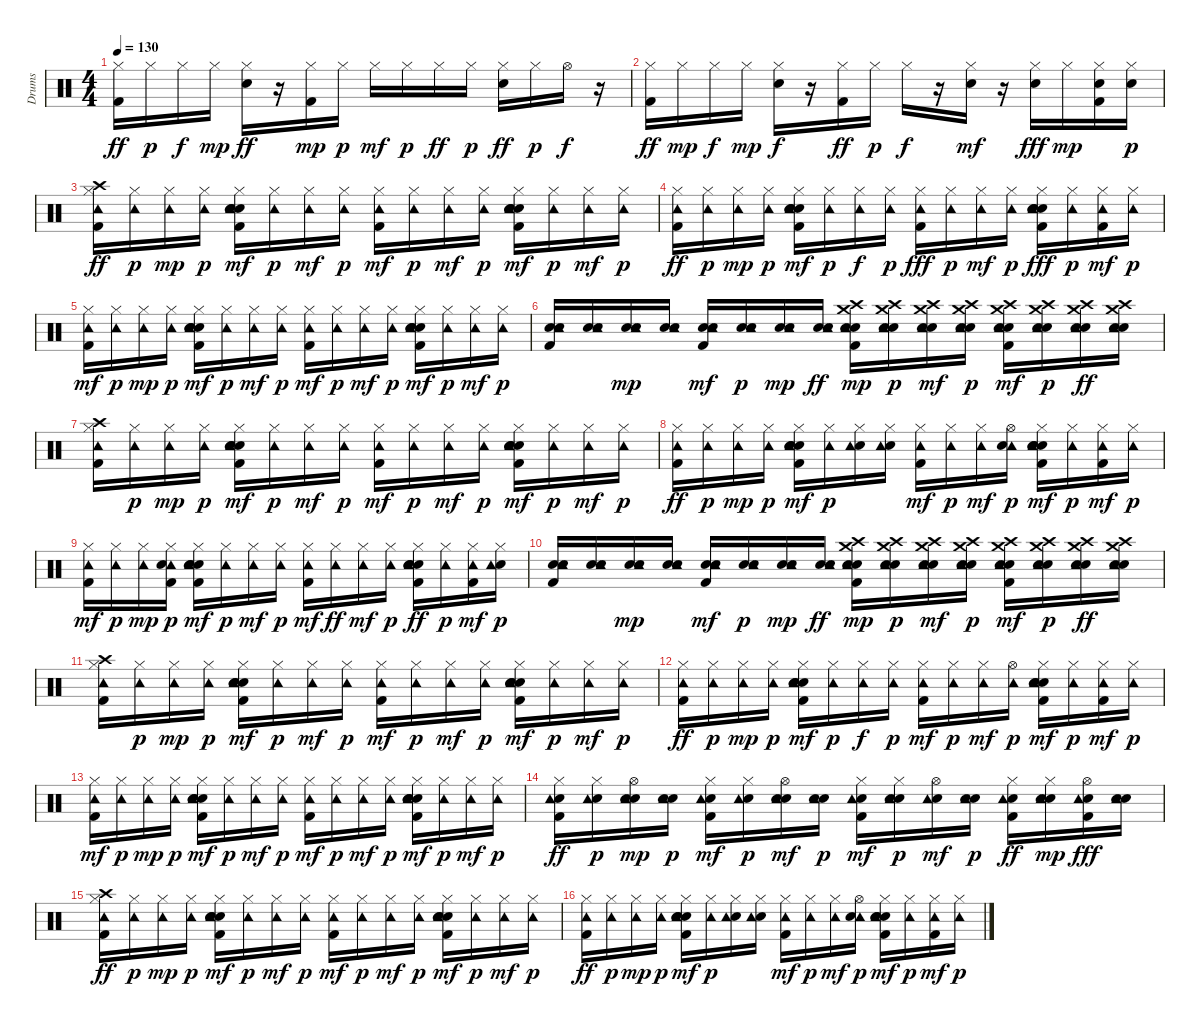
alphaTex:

\track ("Drums  " "Drums  ") {instrument percussion}
\staff {score}
\articulation defaults
\ts (4 4)
\tempo 130
\clef neutral
\ks c
("Kick (hit) 2" "Hi-Hat (closed)").16{dy ff} "Hi-Hat (closed)".16{dy p} "Hi-Hat (closed)".16{dy f} "Hi-Hat (closed)".16{dy mp} ("Snare (hit) 2" "Hi-Hat (closed)").16{dy ff} r.16 ("Kick (hit) 2" "Hi-Hat (closed)").16{dy mp} "Hi-Hat (closed)".16{dy p} "Hi-Hat (closed)".16{dy mf} "Hi-Hat (closed)".16{dy p} "Hi-Hat (closed)".16{dy ff} "Hi-Hat (closed)".16{dy p} ("Snare (hit) 2" "Hi-Hat (closed)").16{dy ff} "Hi-Hat (closed)".16{dy p} "Hi-Hat (open)".16{dy f} r.16 |
("Kick (hit) 2" "Hi-Hat (closed)").16{dy ff} "Hi-Hat (closed)".16{dy mp} "Hi-Hat (closed)".16{dy f} "Hi-Hat (closed)".16{dy mp} ("Snare (hit) 2" "Hi-Hat (closed)").16{dy f} r.16 ("Kick (hit) 2" "Hi-Hat (closed)").16{dy ff} "Hi-Hat (closed)".16{dy p} "Hi-Hat (closed)".16{dy f} r.16 ("Snare (hit) 2" "Hi-Hat (closed)").16{dy mf} r.16 ("Snare (hit) 2" "Hi-Hat (closed)").16{dy fff} "Hi-Hat (closed)".16{dy mp} ("Kick (hit) 2" "Snare (hit) 2" "Hi-Hat (closed)").16 ("Snare (hit) 2" "Hi-Hat (closed)").16{dy p} |
("Kick (hit) 2" "Hi-Hat (closed)" "Tambourine (hit)" "Crash high (hit)").16{dy ff} ("Hi-Hat (closed)" "Tambourine (hit)").16{dy p} ("Hi-Hat (closed)" "Tambourine (hit)").16{dy mp} ("Hi-Hat (closed)" "Tambourine (hit)").16{dy p} ("Kick (hit) 2" "Snare (hit) 2" "Snare (hit) 2" "Electric Snare (hit)" "Hi-Hat (closed)" "Tambourine (hit)").16{dy mf} ("Hi-Hat (closed)" "Tambourine (hit)").16{dy p} ("Hi-Hat (closed)" "Tambourine (hit)").16{dy mf} ("Hi-Hat (closed)" "Tambourine (hit)").16{dy p} ("Kick (hit) 2" "Hi-Hat (closed)" "Tambourine (hit)").16{dy mf} ("Hi-Hat (closed)" "Tambourine (hit)").16{dy p} ("Hi-Hat (closed)" "Tambourine (hit)").16{dy mf} ("Hi-Hat (closed)" "Tambourine (hit)").16{dy p} ("Kick (hit) 2" "Snare (hit) 2" "Snare (hit) 2" "Electric Snare (hit)" "Hi-Hat (closed)" "Tambourine (hit)").16{dy mf} ("Hi-Hat (closed)" "Tambourine (hit)").16{dy p} ("Hi-Hat (closed)" "Tambourine (hit)").16{dy mf} ("Hi-Hat (closed)" "Tambourine (hit)").16{dy p} |
("Kick (hit) 2" "Hi-Hat (closed)" "Tambourine (hit)").16{dy ff} ("Hi-Hat (closed)" "Tambourine (hit)").16{dy p} ("Hi-Hat (closed)" "Tambourine (hit)").16{dy mp} ("Hi-Hat (closed)" "Tambourine (hit)").16{dy p} ("Kick (hit) 2" "Snare (hit) 2" "Snare (hit) 2" "Electric Snare (hit)" "Hi-Hat (closed)" "Tambourine (hit)").16{dy mf} ("Hi-Hat (closed)" "Tambourine (hit)").16{dy p} ("Hi-Hat (closed)" "Tambourine (hit)").16{dy f} ("Hi-Hat (closed)" "Tambourine (hit)").16{dy p} ("Kick (hit) 2" "Hi-Hat (closed)" "Tambourine (hit)").16{dy fff} ("Hi-Hat (closed)" "Tambourine (hit)").16{dy p} ("Hi-Hat (closed)" "Tambourine (hit)").16{dy mf} ("Hi-Hat (closed)" "Tambourine (hit)").16{dy p} ("Kick (hit) 2" "Snare (hit) 2" "Snare (hit) 2" "Electric Snare (hit)" "Hi-Hat (closed)" "Tambourine (hit)").16{dy fff} ("Hi-Hat (closed)" "Tambourine (hit)").16{dy p} ("Kick (hit) 2" "Hi-Hat (closed)" "Tambourine (hit)").16{dy mf} ("Hi-Hat (closed)" "Tambourine (hit)").16{dy p} |
("Kick (hit) 2" "Hi-Hat (closed)" "Tambourine (hit)").16{dy mf} ("Hi-Hat (closed)" "Tambourine (hit)").16{dy p} ("Hi-Hat (closed)" "Tambourine (hit)").16{dy mp} ("Hi-Hat (closed)" "Tambourine (hit)").16{dy p} ("Kick (hit) 2" "Snare (hit) 2" "Snare (hit) 2" "Electric Snare (hit)" "Hi-Hat (closed)" "Tambourine (hit)").16{dy mf} ("Hi-Hat (closed)" "Tambourine (hit)").16{dy p} ("Hi-Hat (closed)" "Tambourine (hit)").16{dy mf} ("Hi-Hat (closed)" "Tambourine (hit)").16{dy p} ("Kick (hit) 2" "Hi-Hat (closed)" "Tambourine (hit)").16{dy mf} ("Hi-Hat (closed)" "Tambourine (hit)").16{dy p} ("Hi-Hat (closed)" "Tambourine (hit)").16{dy mf} ("Hi-Hat (closed)" "Tambourine (hit)").16{dy p} ("Kick (hit) 2" "Snare (hit) 2" "Snare (hit) 2" "Electric Snare (hit)" "Hi-Hat (closed)" "Tambourine (hit)").16{dy mf} ("Hi-Hat (closed)" "Tambourine (hit)").16{dy p} ("Hi-Hat (closed)" "Tambourine (hit)").16{dy mf} ("Hi-Hat (closed)" "Tambourine (hit)").16{dy p} |
("Kick (hit) 2" "Snare (hit) 2" "Snare (hit) 2" "Tambourine (hit)").16 ("Snare (hit) 2" "Snare (hit) 2" "Tambourine (hit)").16 ("Snare (hit) 2" "Snare (hit) 2" "Tambourine (hit)").16{dy mp} ("Snare (hit) 2" "Snare (hit) 2" "Tambourine (hit)").16 ("Kick (hit) 2" "Snare (hit) 2" "Snare (hit) 2" "Tambourine (hit)").16{dy mf} ("Snare (hit) 2" "Snare (hit) 2" "Tambourine (hit)").16{dy p} ("Snare (hit) 2" "Snare (hit) 2" "Tambourine (hit)").16{dy mp} ("Snare (hit) 2" "Snare (hit) 2" "Tambourine (hit)").16{dy ff} ("Kick (hit) 2" "Snare (hit) 2" "Snare (hit) 2" "Tambourine (hit)" "Crash medium (hit)" "Crash high (hit)").16{dy mp} ("Snare (hit) 2" "Snare (hit) 2" "Tambourine (hit)" "Crash medium (hit)" "Crash high (hit)").16{dy p} ("Snare (hit) 2" "Snare (hit) 2" "Tambourine (hit)" "Crash medium (hit)" "Crash high (hit)").16{dy mf} ("Snare (hit) 2" "Snare (hit) 2" "Tambourine (hit)" "Crash medium (hit)" "Crash high (hit)").16{dy p} ("Kick (hit) 2" "Snare (hit) 2" "Snare (hit) 2" "Tambourine (hit)" "Crash medium (hit)" "Crash high (hit)").16{dy mf} ("Snare (hit) 2" "Snare (hit) 2" "Tambourine (hit)" "Crash medium (hit)" "Crash high (hit)").16{dy p} ("Snare (hit) 2" "Snare (hit) 2" "Tambourine (hit)" "Crash medium (hit)" "Crash high (hit)").16{dy ff} ("Snare (hit) 2" "Snare (hit) 2" "Tambourine (hit)" "Crash medium (hit)" "Crash high (hit)").16 |
("Kick (hit) 2" "Hi-Hat (closed)" "Tambourine (hit)" "Crash high (hit)").16 ("Hi-Hat (closed)" "Tambourine (hit)").16{dy p} ("Hi-Hat (closed)" "Tambourine (hit)").16{dy mp} ("Hi-Hat (closed)" "Tambourine (hit)").16{dy p} ("Kick (hit) 2" "Snare (hit) 2" "Snare (hit) 2" "Electric Snare (hit)" "Hi-Hat (closed)" "Tambourine (hit)").16{dy mf} ("Hi-Hat (closed)" "Tambourine (hit)").16{dy p} ("Hi-Hat (closed)" "Tambourine (hit)").16{dy mf} ("Hi-Hat (closed)" "Tambourine (hit)").16{dy p} ("Kick (hit) 2" "Hi-Hat (closed)" "Tambourine (hit)").16{dy mf} ("Hi-Hat (closed)" "Tambourine (hit)").16{dy p} ("Hi-Hat (closed)" "Tambourine (hit)").16{dy mf} ("Hi-Hat (closed)" "Tambourine (hit)").16{dy p} ("Kick (hit) 2" "Snare (hit) 2" "Snare (hit) 2" "Electric Snare (hit)" "Hi-Hat (closed)" "Tambourine (hit)").16{dy mf} ("Hi-Hat (closed)" "Tambourine (hit)").16{dy p} ("Hi-Hat (closed)" "Tambourine (hit)").16{dy mf} ("Hi-Hat (closed)" "Tambourine (hit)").16{dy p} |
("Kick (hit) 2" "Hi-Hat (closed)" "Tambourine (hit)").16{dy ff} ("Hi-Hat (closed)" "Tambourine (hit)").16{dy p} ("Hi-Hat (closed)" "Tambourine (hit)").16{dy mp} ("Hi-Hat (closed)" "Tambourine (hit)").16{dy p} ("Kick (hit) 2" "Snare (hit) 2" "Snare (hit) 2" "Electric Snare (hit)" "Hi-Hat (closed)" "Tambourine (hit)").16{dy mf} ("Hi-Hat (closed)" "Tambourine (hit)").16{dy p} ("Snare (hit) 2" "Hi-Hat (closed)" "Tambourine (hit)").16 ("Snare (hit) 2" "Hi-Hat (closed)" "Tambourine (hit)").16 ("Kick (hit) 2" "Hi-Hat (closed)" "Tambourine (hit)").16{dy mf} ("Hi-Hat (closed)" "Tambourine (hit)").16{dy p} ("Hi-Hat (closed)" "Tambourine (hit)").16{dy mf} ("Hi-Hat (open)" "Tambourine (hit)" "Snare (hit) 2").16{dy p} ("Kick (hit) 2" "Snare (hit) 2" "Snare (hit) 2" "Electric Snare (hit)" "Hi-Hat (closed)" "Tambourine (hit)").16{dy mf} ("Hi-Hat (closed)" "Tambourine (hit)").16{dy p} ("Kick (hit) 2" "Hi-Hat (closed)" "Tambourine (hit)").16{dy mf} ("Hi-Hat (closed)" "Tambourine (hit)").16{dy p} |
("Kick (hit) 2" "Hi-Hat (closed)" "Tambourine (hit)").16{dy mf} ("Hi-Hat (closed)" "Tambourine (hit)").16{dy p} ("Hi-Hat (closed)" "Tambourine (hit)").16{dy mp} ("Kick (hit) 2" "Hi-Hat (closed)" "Tambourine (hit)" "Snare (hit) 2").16{dy p} ("Kick (hit) 2" "Snare (hit) 2" "Snare (hit) 2" "Electric Snare (hit)" "Hi-Hat (closed)" "Tambourine (hit)").16{dy mf} ("Hi-Hat (closed)" "Tambourine (hit)").16{dy p} ("Hi-Hat (closed)" "Tambourine (hit)").16{dy mf} ("Hi-Hat (closed)" "Tambourine (hit)").16{dy p} ("Kick (hit) 2" "Hi-Hat (closed)" "Tambourine (hit)").16{dy mf} ("Hi-Hat (closed)" "Tambourine (hit)").16{dy ff} ("Hi-Hat (closed)" "Tambourine (hit)").16{dy mf} ("Hi-Hat (closed)" "Tambourine (hit)").16{dy p} ("Kick (hit) 2" "Snare (hit) 2" "Snare (hit) 2" "Electric Snare (hit)" "Hi-Hat (closed)" "Tambourine (hit)").16{dy ff} ("Hi-Hat (closed)" "Tambourine (hit)").16{dy p} ("Kick (hit) 2" "Hi-Hat (closed)" "Tambourine (hit)").16{dy mf} ("Snare (hit) 2" "Hi-Hat (closed)" "Tambourine (hit)").16{dy p} |
("Kick (hit) 2" "Snare (hit) 2" "Snare (hit) 2" "Tambourine (hit)").16 ("Snare (hit) 2" "Snare (hit) 2" "Tambourine (hit)").16 ("Snare (hit) 2" "Snare (hit) 2" "Tambourine (hit)").16{dy mp} ("Snare (hit) 2" "Snare (hit) 2" "Tambourine (hit)").16 ("Kick (hit) 2" "Snare (hit) 2" "Snare (hit) 2" "Tambourine (hit)").16{dy mf} ("Snare (hit) 2" "Snare (hit) 2" "Tambourine (hit)").16{dy p} ("Snare (hit) 2" "Snare (hit) 2" "Tambourine (hit)").16{dy mp} ("Snare (hit) 2" "Snare (hit) 2" "Tambourine (hit)").16{dy ff} ("Kick (hit) 2" "Snare (hit) 2" "Snare (hit) 2" "Tambourine (hit)" "Crash medium (hit)" "Crash high (hit)").16{dy mp} ("Snare (hit) 2" "Snare (hit) 2" "Tambourine (hit)" "Crash medium (hit)" "Crash high (hit)").16{dy p} ("Snare (hit) 2" "Snare (hit) 2" "Tambourine (hit)" "Crash medium (hit)" "Crash high (hit)").16{dy mf} ("Snare (hit) 2" "Snare (hit) 2" "Tambourine (hit)" "Crash medium (hit)" "Crash high (hit)").16{dy p} ("Kick (hit) 2" "Snare (hit) 2" "Snare (hit) 2" "Tambourine (hit)" "Crash medium (hit)" "Crash high (hit)").16{dy mf} ("Snare (hit) 2" "Snare (hit) 2" "Tambourine (hit)" "Crash medium (hit)" "Crash high (hit)").16{dy p} ("Snare (hit) 2" "Snare (hit) 2" "Tambourine (hit)" "Crash medium (hit)" "Crash high (hit)").16{dy ff} ("Snare (hit) 2" "Snare (hit) 2" "Tambourine (hit)" "Crash medium (hit)" "Crash high (hit)").16 |
("Kick (hit) 2" "Hi-Hat (closed)" "Tambourine (hit)" "Crash high (hit)").16 ("Hi-Hat (closed)" "Tambourine (hit)").16{dy p} ("Hi-Hat (closed)" "Tambourine (hit)").16{dy mp} ("Hi-Hat (closed)" "Tambourine (hit)").16{dy p} ("Kick (hit) 2" "Snare (hit) 2" "Snare (hit) 2" "Electric Snare (hit)" "Hi-Hat (closed)" "Tambourine (hit)").16{dy mf} ("Hi-Hat (closed)" "Tambourine (hit)").16{dy p} ("Hi-Hat (closed)" "Tambourine (hit)").16{dy mf} ("Hi-Hat (closed)" "Tambourine (hit)").16{dy p} ("Kick (hit) 2" "Hi-Hat (closed)" "Tambourine (hit)").16{dy mf} ("Hi-Hat (closed)" "Tambourine (hit)").16{dy p} ("Hi-Hat (closed)" "Tambourine (hit)").16{dy mf} ("Hi-Hat (closed)" "Tambourine (hit)").16{dy p} ("Kick (hit) 2" "Snare (hit) 2" "Snare (hit) 2" "Electric Snare (hit)" "Hi-Hat (closed)" "Tambourine (hit)").16{dy mf} ("Hi-Hat (closed)" "Tambourine (hit)").16{dy p} ("Hi-Hat (closed)" "Tambourine (hit)").16{dy mf} ("Hi-Hat (closed)" "Tambourine (hit)").16{dy p} |
("Kick (hit) 2" "Hi-Hat (closed)" "Tambourine (hit)").16{dy ff} ("Hi-Hat (closed)" "Tambourine (hit)").16{dy p} ("Hi-Hat (closed)" "Tambourine (hit)").16{dy mp} ("Hi-Hat (closed)" "Tambourine (hit)").16{dy p} ("Kick (hit) 2" "Snare (hit) 2" "Snare (hit) 2" "Electric Snare (hit)" "Hi-Hat (closed)" "Tambourine (hit)").16{dy mf} ("Hi-Hat (closed)" "Tambourine (hit)").16{dy p} ("Hi-Hat (closed)" "Tambourine (hit)").16{dy f} ("Hi-Hat (closed)" "Tambourine (hit)").16{dy p} ("Kick (hit) 2" "Hi-Hat (closed)" "Tambourine (hit)").16{dy mf} ("Hi-Hat (closed)" "Tambourine (hit)").16{dy p} ("Hi-Hat (closed)" "Tambourine (hit)").16{dy mf} ("Hi-Hat (open)" "Tambourine (hit)").16{dy p} ("Kick (hit) 2" "Snare (hit) 2" "Snare (hit) 2" "Electric Snare (hit)" "Hi-Hat (closed)" "Tambourine (hit)").16{dy mf} ("Hi-Hat (closed)" "Tambourine (hit)").16{dy p} ("Kick (hit) 2" "Hi-Hat (closed)" "Tambourine (hit)").16{dy mf} ("Hi-Hat (closed)" "Tambourine (hit)").16{dy p} |
("Kick (hit) 2" "Hi-Hat (closed)" "Tambourine (hit)").16{dy mf} ("Hi-Hat (closed)" "Tambourine (hit)").16{dy p} ("Hi-Hat (closed)" "Tambourine (hit)").16{dy mp} ("Hi-Hat (closed)" "Tambourine (hit)").16{dy p} ("Kick (hit) 2" "Snare (hit) 2" "Snare (hit) 2" "Electric Snare (hit)" "Hi-Hat (closed)" "Tambourine (hit)").16{dy mf} ("Hi-Hat (closed)" "Tambourine (hit)").16{dy p} ("Hi-Hat (closed)" "Tambourine (hit)").16{dy mf} ("Hi-Hat (closed)" "Tambourine (hit)").16{dy p} ("Kick (hit) 2" "Hi-Hat (closed)" "Tambourine (hit)").16{dy mf} ("Hi-Hat (closed)" "Tambourine (hit)").16{dy p} ("Hi-Hat (closed)" "Tambourine (hit)").16{dy mf} ("Hi-Hat (closed)" "Tambourine (hit)").16{dy p} ("Kick (hit) 2" "Snare (hit) 2" "Snare (hit) 2" "Electric Snare (hit)" "Hi-Hat (closed)" "Tambourine (hit)").16{dy mf} ("Hi-Hat (closed)" "Tambourine (hit)").16{dy p} ("Hi-Hat (closed)" "Tambourine (hit)").16{dy mf} ("Hi-Hat (closed)" "Tambourine (hit)").16{dy p} |
("Kick (hit) 2" "Snare (hit) 2" "Hi-Hat (closed)" "Tambourine (hit)").16{dy ff} ("Snare (hit) 2" "Hi-Hat (closed)" "Tambourine (hit)").16{dy p} ("Snare (hit) 2" "Electric Snare (hit)" "Hi-Hat (open)" "Tambourine (hit)").16{dy mp} ("Snare (hit) 2" "Electric Snare (hit)" "Tambourine (hit)").16{dy p} ("Kick (hit) 2" "Snare (hit) 2" "Hi-Hat (closed)" "Tambourine (hit)").16{dy mf} ("Snare (hit) 2" "Hi-Hat (closed)" "Tambourine (hit)").16{dy p} ("Snare (hit) 2" "Electric Snare (hit)" "Hi-Hat (open)" "Tambourine (hit)").16{dy mf} ("Snare (hit) 2" "Electric Snare (hit)" "Tambourine (hit)").16{dy p} ("Kick (hit) 2" "Snare (hit) 2" "Hi-Hat (closed)" "Tambourine (hit)").16{dy mf} ("Snare (hit) 2" "Electric Snare (hit)" "Hi-Hat (closed)" "Tambourine (hit)").16{dy p} ("Snare (hit) 2" "Hi-Hat (open)" "Tambourine (hit)").16{dy mf} ("Snare (hit) 2" "Electric Snare (hit)" "Tambourine (hit)").16{dy p} ("Kick (hit) 2" "Snare (hit) 2" "Hi-Hat (closed)" "Tambourine (hit)").16{dy ff} ("Snare (hit) 2" "Electric Snare (hit)" "Hi-Hat (closed)" "Tambourine (hit)").16{dy mp} ("Kick (hit) 2" "Snare (hit) 2" "Hi-Hat (open)" "Tambourine (hit)").16{dy fff} ("Snare (hit) 2" "Electric Snare (hit)" "Tambourine (hit)").16 |
("Kick (hit) 2" "Hi-Hat (closed)" "Tambourine (hit)" "Crash high (hit)").16{dy ff} ("Hi-Hat (closed)" "Tambourine (hit)").16{dy p} ("Hi-Hat (closed)" "Tambourine (hit)").16{dy mp} ("Hi-Hat (closed)" "Tambourine (hit)").16{dy p} ("Kick (hit) 2" "Snare (hit) 2" "Snare (hit) 2" "Electric Snare (hit)" "Hi-Hat (closed)" "Tambourine (hit)").16{dy mf} ("Hi-Hat (closed)" "Tambourine (hit)").16{dy p} ("Hi-Hat (closed)" "Tambourine (hit)").16{dy mf} ("Hi-Hat (closed)" "Tambourine (hit)").16{dy p} ("Kick (hit) 2" "Hi-Hat (closed)" "Tambourine (hit)").16{dy mf} ("Hi-Hat (closed)" "Tambourine (hit)").16{dy p} ("Hi-Hat (closed)" "Tambourine (hit)").16{dy mf} ("Hi-Hat (closed)" "Tambourine (hit)").16{dy p} ("Kick (hit) 2" "Snare (hit) 2" "Snare (hit) 2" "Electric Snare (hit)" "Hi-Hat (closed)" "Tambourine (hit)").16{dy mf} ("Hi-Hat (closed)" "Tambourine (hit)").16{dy p} ("Hi-Hat (closed)" "Tambourine (hit)").16{dy mf} ("Hi-Hat (closed)" "Tambourine (hit)").16{dy p} |
("Kick (hit) 2" "Hi-Hat (closed)" "Tambourine (hit)").16{dy ff} ("Hi-Hat (closed)" "Tambourine (hit)").16{dy p} ("Hi-Hat (closed)" "Tambourine (hit)").16{dy mp} ("Hi-Hat (closed)" "Tambourine (hit)").16{dy p} ("Kick (hit) 2" "Snare (hit) 2" "Snare (hit) 2" "Electric Snare (hit)" "Hi-Hat (closed)" "Tambourine (hit)").16{dy mf} ("Hi-Hat (closed)" "Tambourine (hit)").16{dy p} ("Snare (hit) 2" "Hi-Hat (closed)" "Tambourine (hit)").16 ("Snare (hit) 2" "Hi-Hat (closed)" "Tambourine (hit)").16 ("Kick (hit) 2" "Hi-Hat (closed)" "Tambourine (hit)").16{dy mf} ("Hi-Hat (closed)" "Tambourine (hit)").16{dy p} ("Hi-Hat (closed)" "Tambourine (hit)").16{dy mf} ("Hi-Hat (open)" "Tambourine (hit)" "Snare (hit) 2").16{dy p} ("Kick (hit) 2" "Snare (hit) 2" "Snare (hit) 2" "Electric Snare (hit)" "Hi-Hat (closed)" "Tambourine (hit)").16{dy mf} ("Hi-Hat (closed)" "Tambourine (hit)").16{dy p} ("Kick (hit) 2" "Hi-Hat (closed)" "Tambourine (hit)").16{dy mf} ("Hi-Hat (closed)" "Tambourine (hit)").16{dy p}
